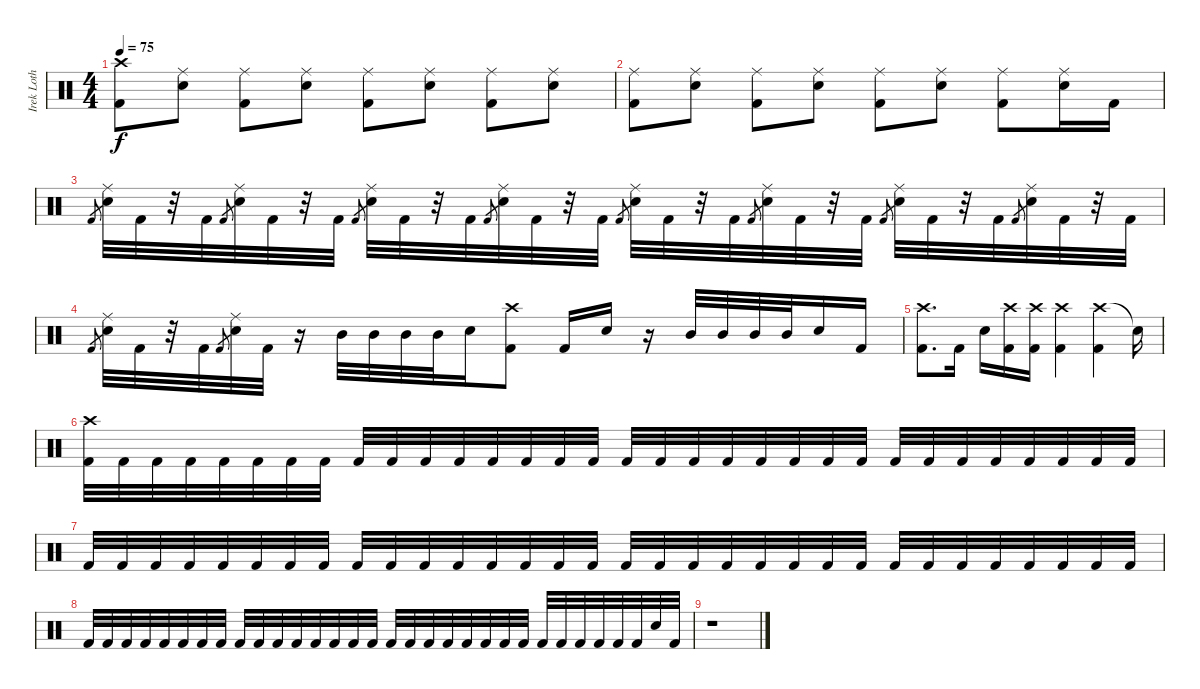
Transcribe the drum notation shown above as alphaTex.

\track ("Irek Loth" "Irek Loth") {instrument percussion}
\staff {score}
\articulation defaults
\ts (4 4)
\tempo 75
\clef neutral
\ks c
("Crash high (hit)" "Kick (hit) 2").8{dy f} ("Snare (hit) 2" "Ride (middle)").8 ("Ride (middle)" "Kick (hit) 2").8 ("Snare (hit) 2" "Ride (middle)").8 ("Ride (middle)" "Kick (hit) 2").8 ("Snare (hit) 2" "Ride (middle)").8 ("Ride (middle)" "Kick (hit) 2").8 ("Snare (hit) 2" "Ride (middle)").8 |
("Ride (middle)" "Kick (hit) 2").8 ("Snare (hit) 2" "Ride (middle)").8 ("Ride (middle)" "Kick (hit) 2").8 ("Snare (hit) 2" "Ride (middle)").8 ("Ride (middle)" "Kick (hit) 2").8 ("Snare (hit) 2" "Ride (middle)").8 ("Ride (middle)" "Kick (hit) 2").8 ("Snare (hit) 2" "Ride (middle)").16 "Kick (hit) 2".16 |
"Kick (hit) 2".8{gr} ("Snare (hit) 2" "Ride (middle)").32 "Kick (hit) 2".32 r.32 "Kick (hit) 2".32 "Kick (hit) 2".8{gr} ("Snare (hit) 2" "Ride (middle)").32 "Kick (hit) 2".32 r.32 "Kick (hit) 2".32 "Kick (hit) 2".8{gr} ("Snare (hit) 2" "Ride (middle)").32 "Kick (hit) 2".32 r.32 "Kick (hit) 2".32 "Kick (hit) 2".8{gr} ("Snare (hit) 2" "Ride (middle)").32 "Kick (hit) 2".32 r.32 "Kick (hit) 2".32 "Kick (hit) 2".8{gr} ("Snare (hit) 2" "Ride (middle)").32 "Kick (hit) 2".32 r.32 "Kick (hit) 2".32 "Kick (hit) 2".8{gr} ("Snare (hit) 2" "Ride (middle)").32 "Kick (hit) 2".32 r.32 "Kick (hit) 2".32 "Kick (hit) 2".8{gr} ("Snare (hit) 2" "Ride (middle)").32 "Kick (hit) 2".32 r.32 "Kick (hit) 2".32 "Kick (hit) 2".8{gr} ("Snare (hit) 2" "Ride (middle)").32 "Kick (hit) 2".32 r.32 "Kick (hit) 2".32 |
"Kick (hit) 2".8{gr} ("Snare (hit) 2" "Ride (middle)").32 "Kick (hit) 2".32 r.32 "Kick (hit) 2".32 "Kick (hit) 2".8{gr} ("Snare (hit) 2" "Ride (middle)").32 "Kick (hit) 2".32 r.16 "Mid Tom (hit)".32 "Mid Tom (hit)".32 "Mid Tom (hit)".32 "Mid Tom (hit)".32 "Snare (hit) 2".16 ("Crash high (hit)" "Kick (hit) 2").8 "Kick (hit) 2".16 "Snare (hit) 2".16 r.16 "Mid Tom (hit)".32 "Mid Tom (hit)".32 "Mid Tom (hit)".32 "Mid Tom (hit)".32 "Snare (hit) 2".16 "Kick (hit) 2".16 |
("Crash high (hit)" "Kick (hit) 2").8{d} "Kick (hit) 2".16 "Snare (hit) 2".16 ("Crash high (hit)" "Kick (hit) 2").16 ("Crash high (hit)" "Kick (hit) 2").16 ("Crash high (hit)" "Kick (hit) 2").4 ("Crash high (hit)" "Kick (hit) 2").4 "Snare (hit)"{t}.16 |
("Crash high (hit)" "Kick (hit) 2").32 "Kick (hit) 2".32 "Kick (hit) 2".32 "Kick (hit) 2".32 "Kick (hit) 2".32 "Kick (hit) 2".32 "Kick (hit) 2".32 "Kick (hit) 2".32 "Kick (hit) 2".32 "Kick (hit) 2".32 "Kick (hit) 2".32 "Kick (hit) 2".32 "Kick (hit) 2".32 "Kick (hit) 2".32 "Kick (hit) 2".32 "Kick (hit) 2".32 "Kick (hit) 2".32 "Kick (hit) 2".32 "Kick (hit) 2".32 "Kick (hit) 2".32 "Kick (hit) 2".32 "Kick (hit) 2".32 "Kick (hit) 2".32 "Kick (hit) 2".32 "Kick (hit) 2".32 "Kick (hit) 2".32 "Kick (hit) 2".32 "Kick (hit) 2".32 "Kick (hit) 2".32 "Kick (hit) 2".32 "Kick (hit) 2".32 "Kick (hit) 2".32 |
"Kick (hit) 2".32 "Kick (hit) 2".32 "Kick (hit) 2".32 "Kick (hit) 2".32 "Kick (hit) 2".32 "Kick (hit) 2".32 "Kick (hit) 2".32 "Kick (hit) 2".32 "Kick (hit) 2".32 "Kick (hit) 2".32 "Kick (hit) 2".32 "Kick (hit) 2".32 "Kick (hit) 2".32 "Kick (hit) 2".32 "Kick (hit) 2".32 "Kick (hit) 2".32 "Kick (hit) 2".32 "Kick (hit) 2".32 "Kick (hit) 2".32 "Kick (hit) 2".32 "Kick (hit) 2".32 "Kick (hit) 2".32 "Kick (hit) 2".32 "Kick (hit) 2".32 "Kick (hit) 2".32 "Kick (hit) 2".32 "Kick (hit) 2".32 "Kick (hit) 2".32 "Kick (hit) 2".32 "Kick (hit) 2".32 "Kick (hit) 2".32 "Kick (hit) 2".32 |
"Kick (hit) 2".32 "Kick (hit) 2".32 "Kick (hit) 2".32 "Kick (hit) 2".32 "Kick (hit) 2".32 "Kick (hit) 2".32 "Kick (hit) 2".32 "Kick (hit) 2".32 "Kick (hit) 2".32 "Kick (hit) 2".32 "Kick (hit) 2".32 "Kick (hit) 2".32 "Kick (hit) 2".32 "Kick (hit) 2".32 "Kick (hit) 2".32 "Kick (hit) 2".32 "Kick (hit) 2".32 "Kick (hit) 2".32 "Kick (hit) 2".32 "Kick (hit) 2".32 "Kick (hit) 2".32 "Kick (hit) 2".32 "Kick (hit) 2".32 "Kick (hit) 2".32 "Kick (hit) 2".32 "Kick (hit) 2".32 "Kick (hit) 2".32 "Kick (hit) 2".32 "Kick (hit) 2".32 "Kick (hit) 2".32 "Snare (hit) 2".32 "Kick (hit) 2".32 |
r.1
